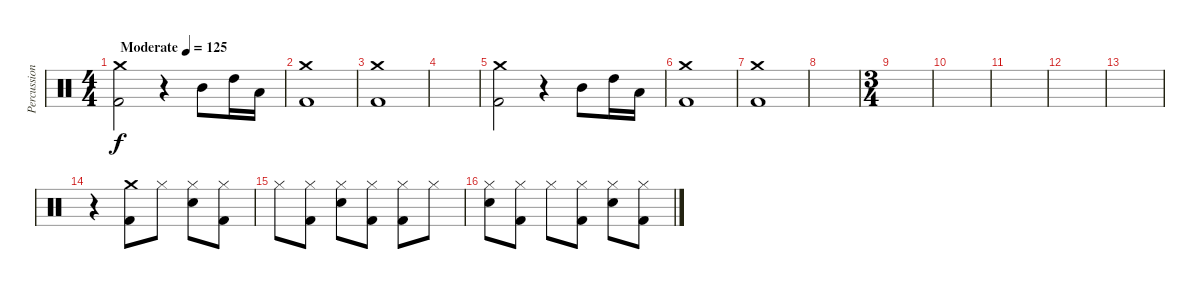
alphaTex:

\track ("Percussion" "Percussion") {instrument percussion}
\staff {score}
\articulation defaults
\ts (4 4)
\tempo (125 "Moderate")
\clef neutral
\ks c
("Crash medium (hit)" "Kick (hit) 2").2{dy f} r.4 "Mid Tom (hit)".8 "High Tom (hit)".16 "Low Tom (hit)".16 |
("Crash medium (hit)" "Kick (hit) 2").1 |
("Crash medium (hit)" "Kick (hit) 2").1 |
|
("Crash medium (hit)" "Kick (hit) 2").2 r.4 "Mid Tom (hit)".8 "High Tom (hit)".16 "Low Tom (hit)".16 |
("Crash medium (hit)" "Kick (hit) 2").1 |
("Crash medium (hit)" "Kick (hit) 2").1 |
|
\ts (3 4)
|
|
|
|
|
r.4 ("Crash medium (hit)" "Kick (hit) 2").8 "Hi-Hat (closed)".8 ("Hi-Hat (closed)" "Snare (hit) 2").8 ("Hi-Hat (closed)" "Kick (hit) 2").8 |
"Hi-Hat (closed)".8 ("Hi-Hat (closed)" "Kick (hit) 2").8 ("Hi-Hat (closed)" "Snare (hit) 2").8 ("Hi-Hat (closed)" "Kick (hit) 2").8 ("Hi-Hat (closed)" "Kick (hit) 2").8 "Hi-Hat (closed)".8 |
("Hi-Hat (closed)" "Snare (hit) 2").8 ("Hi-Hat (closed)" "Kick (hit) 2").8 "Hi-Hat (closed)".8 ("Hi-Hat (closed)" "Kick (hit) 2").8 ("Hi-Hat (closed)" "Snare (hit) 2").8 ("Hi-Hat (closed)" "Kick (hit) 2").8
